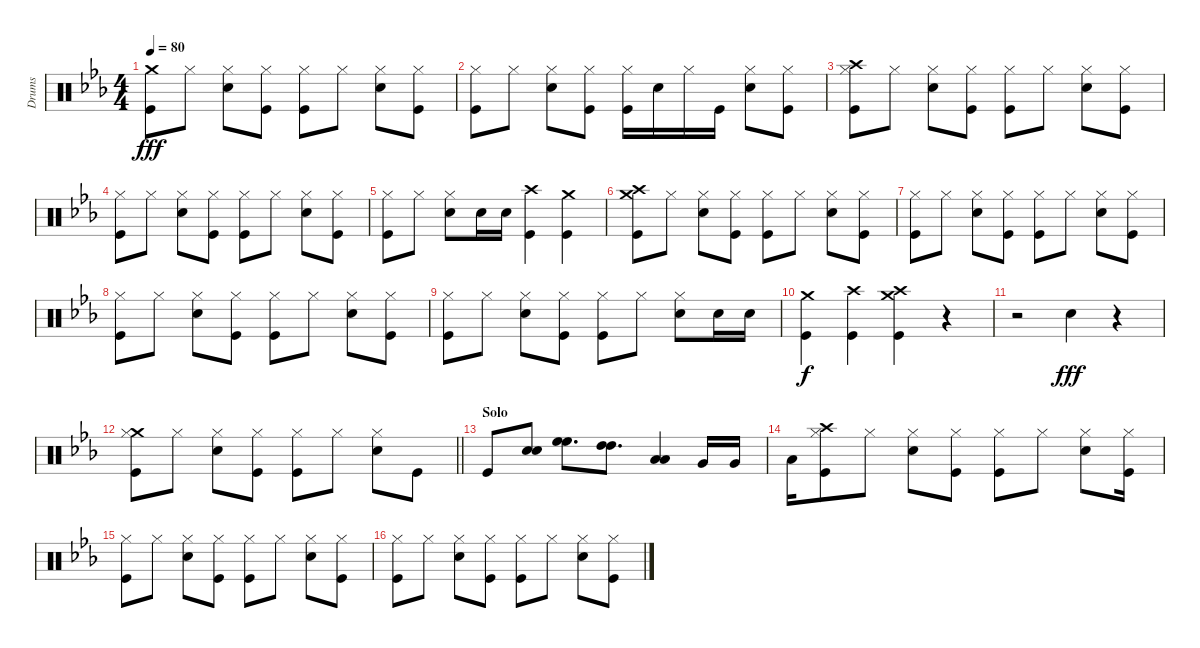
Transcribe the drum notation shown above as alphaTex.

\track ("Drums" "Drums") {instrument percussion}
\staff {score}
\articulation defaults
\ts (4 4)
\tempo 80
\clef neutral
\ks eb
("Crash medium (hit)" "Kick (hit)").8{dy fff} "Hi-Hat (closed)".8 ("Snare (hit) 2" "Hi-Hat (closed)").8 ("Kick (hit)" "Hi-Hat (closed)").8 ("Kick (hit)" "Hi-Hat (closed)").8 "Hi-Hat (closed)".8 ("Snare (hit) 2" "Hi-Hat (closed)").8 ("Kick (hit)" "Hi-Hat (closed)").8 |
("Kick (hit)" "Hi-Hat (closed)").8 "Hi-Hat (closed)".8 ("Snare (hit) 2" "Hi-Hat (closed)").8 ("Kick (hit)" "Hi-Hat (closed)").8 ("Kick (hit)" "Hi-Hat (closed)").16 "Snare (hit) 2".16 "Hi-Hat (closed)".16 "Kick (hit)".16 ("Snare (hit) 2" "Hi-Hat (closed)").8 ("Kick (hit)" "Hi-Hat (closed)").8 |
("Crash high (hit)" "Kick (hit)" "Hi-Hat (closed)").8 "Hi-Hat (closed)".8 ("Snare (hit) 2" "Hi-Hat (closed)").8 ("Kick (hit)" "Hi-Hat (closed)").8 ("Kick (hit)" "Hi-Hat (closed)").8 "Hi-Hat (closed)".8 ("Snare (hit) 2" "Hi-Hat (closed)").8 ("Kick (hit)" "Hi-Hat (closed)").8 |
("Kick (hit)" "Hi-Hat (closed)").8 "Hi-Hat (closed)".8 ("Snare (hit) 2" "Hi-Hat (closed)").8 ("Kick (hit)" "Hi-Hat (closed)").8 ("Kick (hit)" "Hi-Hat (closed)").8 "Hi-Hat (closed)".8 ("Snare (hit) 2" "Hi-Hat (closed)").8 ("Kick (hit)" "Hi-Hat (closed)").8 |
("Kick (hit)" "Hi-Hat (closed)").8 "Hi-Hat (closed)".8 ("Snare (hit) 2" "Hi-Hat (closed)").8 "Snare (hit) 2".16 "Snare (hit) 2".16 ("Crash high (hit)" "Kick (hit)").4 ("Crash medium (hit)" "Kick (hit)").4 |
("Crash high (hit)" "Crash medium (hit)" "Kick (hit)").8 "Hi-Hat (closed)".8 ("Hi-Hat (closed)" "Snare (hit) 2").8 ("Kick (hit)" "Hi-Hat (closed)").8 ("Kick (hit)" "Hi-Hat (closed)").8 "Hi-Hat (closed)".8 ("Snare (hit) 2" "Hi-Hat (closed)").8 ("Kick (hit)" "Hi-Hat (closed)").8 |
("Kick (hit)" "Hi-Hat (closed)").8 "Hi-Hat (closed)".8 ("Snare (hit) 2" "Hi-Hat (closed)").8 ("Kick (hit)" "Hi-Hat (closed)").8 ("Kick (hit)" "Hi-Hat (closed)").8 "Hi-Hat (closed)".8 ("Snare (hit) 2" "Hi-Hat (closed)").8 ("Kick (hit)" "Hi-Hat (closed)").8 |
("Kick (hit)" "Hi-Hat (closed)").8 "Hi-Hat (closed)".8 ("Snare (hit) 2" "Hi-Hat (closed)").8 ("Kick (hit)" "Hi-Hat (closed)").8 ("Kick (hit)" "Hi-Hat (closed)").8 "Hi-Hat (closed)".8 ("Snare (hit) 2" "Hi-Hat (closed)").8 ("Kick (hit)" "Hi-Hat (closed)").8 |
("Kick (hit)" "Hi-Hat (closed)").8 "Hi-Hat (closed)".8 ("Snare (hit) 2" "Hi-Hat (closed)").8 ("Kick (hit)" "Hi-Hat (closed)").8 ("Kick (hit)" "Hi-Hat (closed)").8 "Hi-Hat (closed)".8 ("Snare (hit) 2" "Hi-Hat (closed)").8 "Snare (hit) 2".16 "Snare (hit) 2".16 |
("Crash medium (hit)" "Kick (hit)").4{dy f} ("Crash high (hit)" "Kick (hit)").4 ("Crash high (hit)" "Crash medium (hit)" "Kick (hit)").4 r.4 |
r.2 "Snare (hit) 2".4{dy fff} r.4 |
\barLineRight lightlight
("Crash medium (hit)" "Kick (hit)" "Hi-Hat (closed)").8 "Hi-Hat (closed)".8 ("Snare (hit) 2" "Hi-Hat (closed)").8 ("Kick (hit)" "Hi-Hat (closed)").8 ("Kick (hit)" "Hi-Hat (closed)").8 "Hi-Hat (closed)".8 ("Snare (hit) 2" "Hi-Hat (closed)").8 "Kick (hit)".8 |
\section ("" "Solo")
"Kick (hit)".8 ("Snare (hit) 2" "Snare (hit) 2").8 ("High Floor Tom (hit)" "High Floor Tom (hit)").8{d} ("High Tom (hit)" "High Tom (hit)").8{d} ("Low Tom (hit)" "Low Tom (hit)").4 "Very Low Tom (hit)".16 "Very Low Tom (hit)".16 |
"Low Floor Tom (hit)".16 ("Crash high (hit)" "Kick (hit)" "Hi-Hat (closed)").8 "Hi-Hat (closed)".8 ("Snare (hit) 2" "Hi-Hat (closed)").8 ("Hi-Hat (closed)" "Kick (hit)").8 ("Kick (hit)" "Hi-Hat (closed)").8 "Hi-Hat (closed)".8 ("Snare (hit) 2" "Hi-Hat (closed)").8 ("Kick (hit)" "Hi-Hat (closed)").16 |
("Kick (hit)" "Hi-Hat (closed)").8 "Hi-Hat (closed)".8 ("Snare (hit) 2" "Hi-Hat (closed)").8 ("Kick (hit)" "Hi-Hat (closed)").8 ("Kick (hit)" "Hi-Hat (closed)").8 "Hi-Hat (closed)".8 ("Snare (hit) 2" "Hi-Hat (closed)").8 ("Kick (hit)" "Hi-Hat (closed)").8 |
("Kick (hit)" "Hi-Hat (closed)").8 "Hi-Hat (closed)".8 ("Snare (hit) 2" "Hi-Hat (closed)").8 ("Kick (hit)" "Hi-Hat (closed)").8 ("Hi-Hat (closed)" "Kick (hit)").8 "Hi-Hat (closed)".8 ("Snare (hit) 2" "Hi-Hat (closed)").8 ("Kick (hit)" "Hi-Hat (closed)").8
